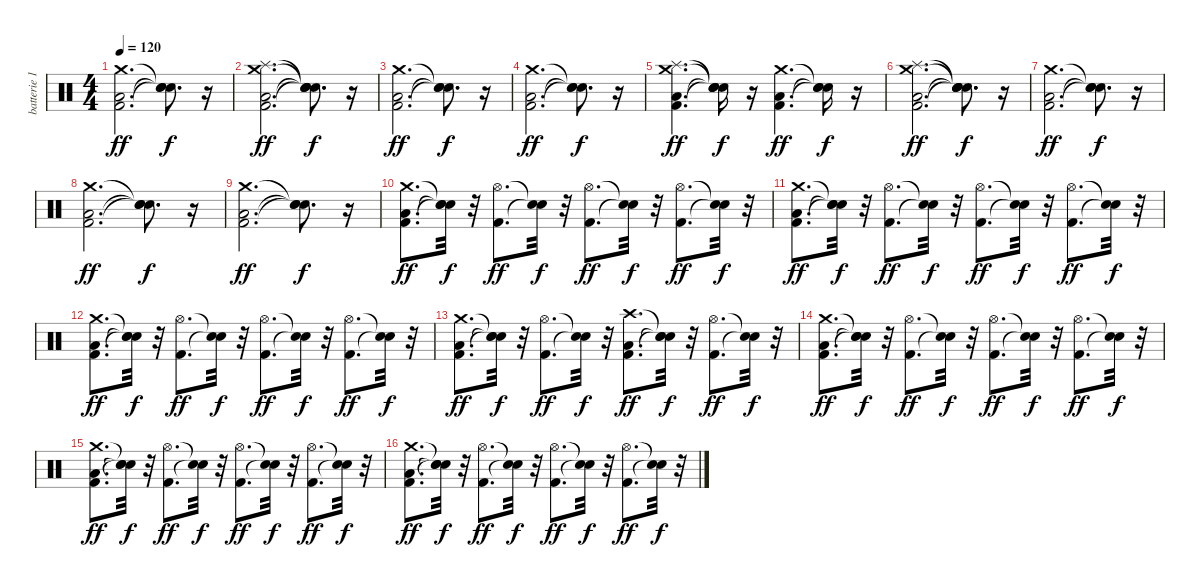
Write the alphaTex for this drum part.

\track ("batterie 1" "batterie 1") {instrument percussion}
\staff {score}
\articulation defaults
\ts (4 4)
\tempo 120
\clef neutral
\ks c
("Kick (hit) 2" "Low Floor Tom (hit)" "Crash medium (hit)").2{d dy ff} ("Snare (hit)"{t} "Snare (hit)"{t} "Snare (hit)"{t}).8{d dy f} r.16 |
("Kick (hit) 2" "Low Floor Tom (hit)" "Splash (hit)" "Crash medium (hit)").2{d dy ff} ("Snare (hit)"{t} "Snare (hit)"{t} "Snare (hit)"{t} "Snare (hit)"{t}).8{d dy f} r.16 |
("Kick (hit) 2" "Low Floor Tom (hit)" "Crash medium (hit)").2{d dy ff} ("Snare (hit)"{t} "Snare (hit)"{t} "Snare (hit)"{t}).8{d dy f} r.16 |
("Kick (hit) 2" "Low Floor Tom (hit)" "Crash medium (hit)").2{d dy ff} ("Snare (hit)"{t} "Snare (hit)"{t} "Snare (hit)"{t}).8{d dy f} r.16 |
("Kick (hit) 2" "Low Floor Tom (hit)" "Splash (hit)" "Crash medium (hit)").4{d dy ff} ("Snare (hit)"{t} "Snare (hit)"{t} "Snare (hit)"{t} "Snare (hit)"{t}).16{dy f} r.16 ("Kick (hit) 2" "Low Floor Tom (hit)" "Crash medium (hit)").4{d dy ff} ("Snare (hit)"{t} "Snare (hit)"{t} "Snare (hit)"{t}).16{dy f} r.16 |
("Kick (hit) 2" "Low Floor Tom (hit)" "Splash (hit)" "Crash medium (hit)").2{d dy ff} ("Snare (hit)"{t} "Snare (hit)"{t} "Snare (hit)"{t} "Snare (hit)"{t}).8{d dy f} r.16 |
("Kick (hit) 2" "Low Floor Tom (hit)" "Crash medium (hit)").2{d dy ff} ("Snare (hit)"{t} "Snare (hit)"{t} "Snare (hit)"{t}).8{d dy f} r.16 |
("Kick (hit) 2" "Low Floor Tom (hit)" "Crash medium (hit)").2{d dy ff} ("Snare (hit)"{t} "Snare (hit)"{t} "Snare (hit)"{t}).8{d dy f} r.16 |
("Kick (hit) 2" "Low Floor Tom (hit)" "Crash medium (hit)").2{d dy ff} ("Snare (hit)"{t} "Snare (hit)"{t} "Snare (hit)"{t}).8{d dy f} r.16 |
("Kick (hit) 2" "Low Floor Tom (hit)" "Crash medium (hit)").8{d dy ff} ("Snare (hit)"{t} "Snare (hit)"{t} "Snare (hit)"{t}).32{dy f} r.32 ("Kick (hit) 2" "Hi-Hat (open)").8{d dy ff} ("Snare (hit)"{t} "Snare (hit)"{t}).32{dy f} r.32 ("Kick (hit) 2" "Hi-Hat (open)").8{d dy ff} ("Snare (hit)"{t} "Snare (hit)"{t}).32{dy f} r.32 ("Kick (hit) 2" "Hi-Hat (open)").8{d dy ff} ("Snare (hit)"{t} "Snare (hit)"{t}).32{dy f} r.32 |
("Kick (hit) 2" "Low Floor Tom (hit)" "Crash medium (hit)").8{d dy ff} ("Snare (hit)"{t} "Snare (hit)"{t} "Snare (hit)"{t}).32{dy f} r.32 ("Kick (hit) 2" "Hi-Hat (open)").8{d dy ff} ("Snare (hit)"{t} "Snare (hit)"{t}).32{dy f} r.32 ("Kick (hit) 2" "Hi-Hat (open)").8{d dy ff} ("Snare (hit)"{t} "Snare (hit)"{t}).32{dy f} r.32 ("Kick (hit) 2" "Hi-Hat (open)").8{d dy ff} ("Snare (hit)"{t} "Snare (hit)"{t}).32{dy f} r.32 |
("Kick (hit) 2" "Low Floor Tom (hit)" "Crash medium (hit)").8{d dy ff} ("Snare (hit)"{t} "Snare (hit)"{t} "Snare (hit)"{t}).32{dy f} r.32 ("Kick (hit) 2" "Hi-Hat (open)").8{d dy ff} ("Snare (hit)"{t} "Snare (hit)"{t}).32{dy f} r.32 ("Kick (hit) 2" "Hi-Hat (open)").8{d dy ff} ("Snare (hit)"{t} "Snare (hit)"{t}).32{dy f} r.32 ("Kick (hit) 2" "Hi-Hat (open)").8{d dy ff} ("Snare (hit)"{t} "Snare (hit)"{t}).32{dy f} r.32 |
("Kick (hit) 2" "Low Floor Tom (hit)" "Crash medium (hit)").8{d dy ff} ("Snare (hit)"{t} "Snare (hit)"{t} "Snare (hit)"{t}).32{dy f} r.32 ("Kick (hit) 2" "Hi-Hat (open)").8{d dy ff} ("Snare (hit)"{t} "Snare (hit)"{t}).32{dy f} r.32 ("Kick (hit) 2" "Low Floor Tom (hit)" "Crash high (hit)").8{d dy ff} ("Snare (hit)"{t} "Snare (hit)"{t} "Snare (hit)"{t}).32{dy f} r.32 ("Kick (hit) 2" "Hi-Hat (open)").8{d dy ff} ("Snare (hit)"{t} "Snare (hit)"{t}).32{dy f} r.32 |
("Kick (hit) 2" "Low Floor Tom (hit)" "Crash medium (hit)").8{d dy ff} ("Snare (hit)"{t} "Snare (hit)"{t} "Snare (hit)"{t}).32{dy f} r.32 ("Kick (hit) 2" "Hi-Hat (open)").8{d dy ff} ("Snare (hit)"{t} "Snare (hit)"{t}).32{dy f} r.32 ("Kick (hit) 2" "Hi-Hat (open)").8{d dy ff} ("Snare (hit)"{t} "Snare (hit)"{t}).32{dy f} r.32 ("Kick (hit) 2" "Hi-Hat (open)").8{d dy ff} ("Snare (hit)"{t} "Snare (hit)"{t}).32{dy f} r.32 |
("Kick (hit) 2" "Low Floor Tom (hit)" "Crash medium (hit)").8{d dy ff} ("Snare (hit)"{t} "Snare (hit)"{t} "Snare (hit)"{t}).32{dy f} r.32 ("Kick (hit) 2" "Hi-Hat (open)").8{d dy ff} ("Snare (hit)"{t} "Snare (hit)"{t}).32{dy f} r.32 ("Kick (hit) 2" "Hi-Hat (open)").8{d dy ff} ("Snare (hit)"{t} "Snare (hit)"{t}).32{dy f} r.32 ("Kick (hit) 2" "Hi-Hat (open)").8{d dy ff} ("Snare (hit)"{t} "Snare (hit)"{t}).32{dy f} r.32 |
("Kick (hit) 2" "Low Floor Tom (hit)" "Crash medium (hit)").8{d dy ff} ("Snare (hit)"{t} "Snare (hit)"{t} "Snare (hit)"{t}).32{dy f} r.32 ("Kick (hit) 2" "Hi-Hat (open)").8{d dy ff} ("Snare (hit)"{t} "Snare (hit)"{t}).32{dy f} r.32 ("Kick (hit) 2" "Hi-Hat (open)").8{d dy ff} ("Snare (hit)"{t} "Snare (hit)"{t}).32{dy f} r.32 ("Kick (hit) 2" "Hi-Hat (open)").8{d dy ff} ("Snare (hit)"{t} "Snare (hit)"{t}).32{dy f} r.32
